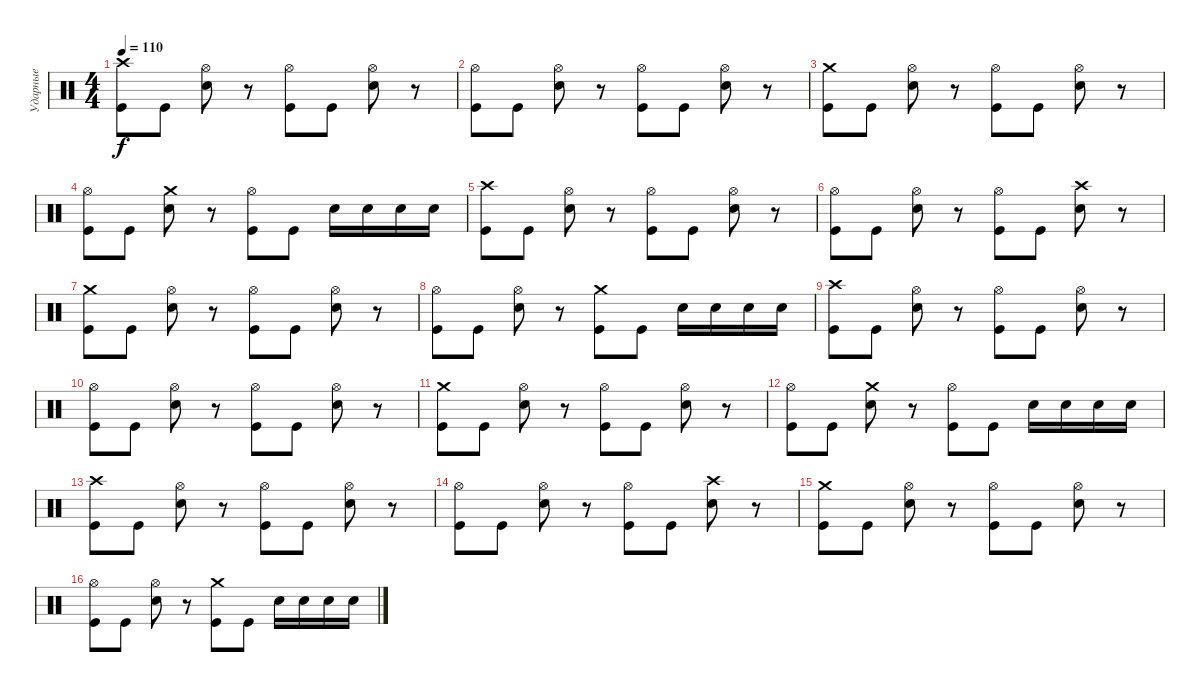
\track ("Ударные" "Ударные") {solo instrument percussion}
\staff {score}
\articulation defaults
\ts (4 4)
\tempo 110
\clef neutral
\ks c
("Kick (hit)" "Crash high (hit)").8{dy f} "Kick (hit)".8 ("Snare (hit) 2" "Hi-Hat (open)").8 r.8 ("Kick (hit)" "Hi-Hat (open)").8 "Kick (hit)".8 ("Snare (hit) 2" "Hi-Hat (open)").8 r.8 |
("Kick (hit)" "Hi-Hat (open)").8 "Kick (hit)".8 ("Snare (hit) 2" "Hi-Hat (open)").8 r.8 ("Kick (hit)" "Hi-Hat (open)").8 "Kick (hit)".8 ("Snare (hit) 2" "Hi-Hat (open)").8 r.8 |
("Kick (hit)" "Crash medium (hit)").8 "Kick (hit)".8 ("Snare (hit) 2" "Hi-Hat (open)").8 r.8 ("Kick (hit)" "Hi-Hat (open)").8 "Kick (hit)".8 ("Snare (hit) 2" "Hi-Hat (open)").8 r.8 |
("Kick (hit)" "Hi-Hat (open)").8 "Kick (hit)".8 ("Snare (hit) 2" "Crash medium (hit)").8 r.8 ("Kick (hit)" "Hi-Hat (open)").8 "Kick (hit)".8 "Snare (hit) 2".16 "Snare (hit) 2".16 "Snare (hit) 2".16 "Snare (hit) 2".16 |
("Kick (hit)" "Crash high (hit)").8 "Kick (hit)".8 ("Snare (hit) 2" "Hi-Hat (open)").8 r.8 ("Kick (hit)" "Hi-Hat (open)").8 "Kick (hit)".8 ("Snare (hit) 2" "Hi-Hat (open)").8 r.8 |
("Kick (hit)" "Hi-Hat (open)").8 "Kick (hit)".8 ("Snare (hit) 2" "Hi-Hat (open)").8 r.8 ("Kick (hit)" "Hi-Hat (open)").8 "Kick (hit)".8 ("Snare (hit) 2" "Crash high (hit)").8 r.8 |
("Kick (hit)" "Crash medium (hit)").8 "Kick (hit)".8 ("Snare (hit) 2" "Hi-Hat (open)").8 r.8 ("Kick (hit)" "Hi-Hat (open)").8 "Kick (hit)".8 ("Snare (hit) 2" "Hi-Hat (open)").8 r.8 |
("Kick (hit)" "Hi-Hat (open)").8 "Kick (hit)".8 ("Snare (hit) 2" "Hi-Hat (open)").8 r.8 ("Kick (hit)" "Crash medium (hit)").8 "Kick (hit)".8 "Snare (hit) 2".16 "Snare (hit) 2".16 "Snare (hit) 2".16 "Snare (hit) 2".16 |
("Kick (hit)" "Crash high (hit)").8 "Kick (hit)".8 ("Snare (hit) 2" "Hi-Hat (open)").8 r.8 ("Kick (hit)" "Hi-Hat (open)").8 "Kick (hit)".8 ("Snare (hit) 2" "Hi-Hat (open)").8 r.8 |
("Kick (hit)" "Hi-Hat (open)").8 "Kick (hit)".8 ("Snare (hit) 2" "Hi-Hat (open)").8 r.8 ("Kick (hit)" "Hi-Hat (open)").8 "Kick (hit)".8 ("Snare (hit) 2" "Hi-Hat (open)").8 r.8 |
("Kick (hit)" "Crash medium (hit)").8 "Kick (hit)".8 ("Snare (hit) 2" "Hi-Hat (open)").8 r.8 ("Kick (hit)" "Hi-Hat (open)").8 "Kick (hit)".8 ("Snare (hit) 2" "Hi-Hat (open)").8 r.8 |
("Kick (hit)" "Hi-Hat (open)").8 "Kick (hit)".8 ("Snare (hit) 2" "Crash medium (hit)").8 r.8 ("Kick (hit)" "Hi-Hat (open)").8 "Kick (hit)".8 "Snare (hit) 2".16 "Snare (hit) 2".16 "Snare (hit) 2".16 "Snare (hit) 2".16 |
("Kick (hit)" "Crash high (hit)").8 "Kick (hit)".8 ("Snare (hit) 2" "Hi-Hat (open)").8 r.8 ("Kick (hit)" "Hi-Hat (open)").8 "Kick (hit)".8 ("Snare (hit) 2" "Hi-Hat (open)").8 r.8 |
("Kick (hit)" "Hi-Hat (open)").8 "Kick (hit)".8 ("Snare (hit) 2" "Hi-Hat (open)").8 r.8 ("Kick (hit)" "Hi-Hat (open)").8 "Kick (hit)".8 ("Snare (hit) 2" "Crash high (hit)").8 r.8 |
("Kick (hit)" "Crash medium (hit)").8 "Kick (hit)".8 ("Snare (hit) 2" "Hi-Hat (open)").8 r.8 ("Kick (hit)" "Hi-Hat (open)").8 "Kick (hit)".8 ("Snare (hit) 2" "Hi-Hat (open)").8 r.8 |
("Kick (hit)" "Hi-Hat (open)").8 "Kick (hit)".8 ("Snare (hit) 2" "Hi-Hat (open)").8 r.8 ("Kick (hit)" "Crash medium (hit)").8 "Kick (hit)".8 "Snare (hit) 2".16 "Snare (hit) 2".16 "Snare (hit) 2".16 "Snare (hit) 2".16
